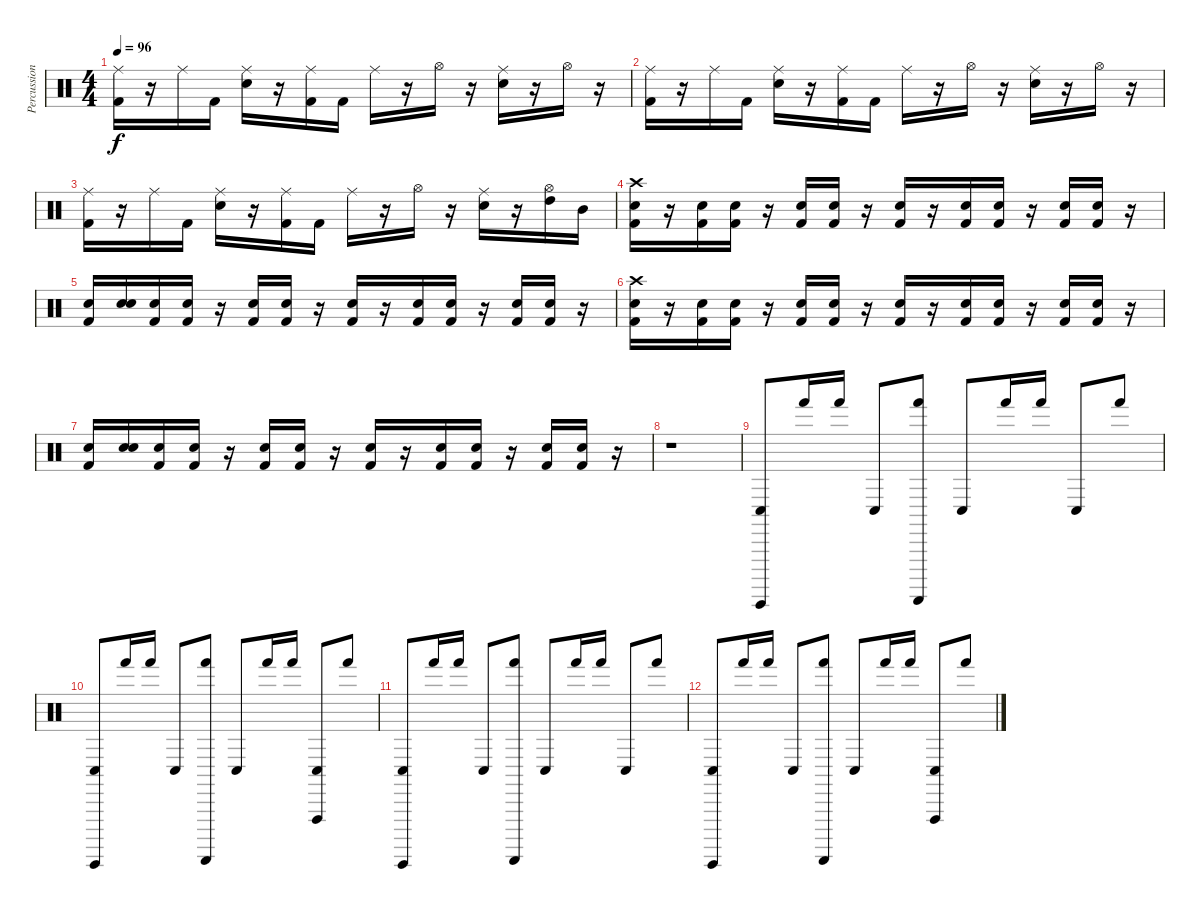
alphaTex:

\track ("Percussion" "Percussion") {instrument percussion}
\staff {score}
\articulation defaults
\ts (4 4)
\tempo 96
\clef neutral
\ks c
("Ride (middle)" "Kick (hit) 2").16{dy f} r.16 "Ride (middle)".16 "Kick (hit) 2".16 ("Ride (middle)" "Snare (hit) 2").16 r.16 ("Ride (middle)" "Kick (hit) 2").16 "Kick (hit) 2".16 "Ride (middle)".16 r.16 "Hi-Hat (open)".16 r.16 ("Ride (middle)" "Snare (hit) 2").16 r.16 "Hi-Hat (open)".16 r.16 |
("Ride (middle)" "Kick (hit) 2").16 r.16 "Ride (middle)".16 "Kick (hit) 2".16 ("Ride (middle)" "Snare (hit) 2").16 r.16 ("Ride (middle)" "Kick (hit) 2").16 "Kick (hit) 2".16 "Ride (middle)".16 r.16 "Hi-Hat (open)".16 r.16 ("Ride (middle)" "Snare (hit) 2").16 r.16 "Hi-Hat (open)".16 r.16 |
("Ride (middle)" "Kick (hit) 2").16 r.16 "Ride (middle)".16 "Kick (hit) 2".16 ("Ride (middle)" "Snare (hit) 2").16 r.16 ("Ride (middle)" "Kick (hit) 2").16 "Kick (hit) 2".16 "Ride (middle)".16 r.16 "Hi-Hat (open)".16 r.16 ("Ride (middle)" "Snare (hit) 2").16 r.16 ("Hi-Hat (open)" "High Tom (hit)").16 "Mid Tom (hit)".16 |
("Crash high (hit)" "Snare (hit) 2" "Kick (hit) 2").16 r.16 ("Snare (hit) 2" "Kick (hit) 2").16 ("Snare (hit) 2" "Kick (hit) 2").16 r.16 ("Snare (hit) 2" "Kick (hit) 2").16 ("Snare (hit) 2" "Kick (hit) 2").16 r.16 ("Snare (hit) 2" "Kick (hit) 2").16 r.16 ("Snare (hit) 2" "Kick (hit) 2").16 ("Snare (hit) 2" "Kick (hit) 2").16 r.16 ("Snare (hit) 2" "Kick (hit) 2").16 ("Snare (hit) 2" "Kick (hit) 2").16 r.16 |
("Snare (hit) 2" "Kick (hit) 2").16 ("Snare (hit) 2" "Snare (hit) 2").16 ("Snare (hit) 2" "Kick (hit) 2").16 ("Snare (hit) 2" "Kick (hit) 2").16 r.16 ("Snare (hit) 2" "Kick (hit) 2").16 ("Snare (hit) 2" "Kick (hit) 2").16 r.16 ("Snare (hit) 2" "Kick (hit) 2").16 r.16 ("Snare (hit) 2" "Kick (hit) 2").16 ("Snare (hit) 2" "Kick (hit) 2").16 r.16 ("Snare (hit) 2" "Kick (hit) 2").16 ("Snare (hit) 2" "Kick (hit) 2").16 r.16 |
("Crash high (hit)" "Snare (hit) 2" "Kick (hit) 2").16 r.16 ("Snare (hit) 2" "Kick (hit) 2").16 ("Snare (hit) 2" "Kick (hit) 2").16 r.16 ("Snare (hit) 2" "Kick (hit) 2").16 ("Snare (hit) 2" "Kick (hit) 2").16 r.16 ("Snare (hit) 2" "Kick (hit) 2").16 r.16 ("Snare (hit) 2" "Kick (hit) 2").16 ("Snare (hit) 2" "Kick (hit) 2").16 r.16 ("Snare (hit) 2" "Kick (hit) 2").16 ("Snare (hit) 2" "Kick (hit) 2").16 r.16 |
("Snare (hit) 2" "Kick (hit) 2").16 ("Snare (hit) 2" "Snare (hit) 2").16 ("Snare (hit) 2" "Kick (hit) 2").16 ("Snare (hit) 2" "Kick (hit) 2").16 r.16 ("Snare (hit) 2" "Kick (hit) 2").16 ("Snare (hit) 2" "Kick (hit) 2").16 r.16 ("Snare (hit) 2" "Kick (hit) 2").16 r.16 ("Snare (hit) 2" "Kick (hit) 2").16 ("Snare (hit) 2" "Kick (hit) 2").16 r.16 ("Snare (hit) 2" "Kick (hit) 2").16 ("Snare (hit) 2" "Kick (hit) 2").16 r.16 |
r.1{volume 0} |
("Conga low (hit)" "Guiro (hit)").8{volume 16} "Hand (hit)".16 "Hand (hit)".16 "Conga low (hit)".8 ("Hand (hit)" "Guiro (scrap-return)").8 "Conga low (hit)".8 "Hand (hit)".16 "Hand (hit)".16 "Conga low (hit)".8 "Hand (hit)".8 |
("Conga low (hit)" "Guiro (hit)").8 "Hand (hit)".16 "Hand (hit)".16 "Conga low (hit)".8 ("Hand (hit)" "Guiro (scrap-return)").8 "Conga low (hit)".8 "Hand (hit)".16 "Hand (hit)".16 ("Conga low (hit)" "Vibraslap (hit)").8 "Hand (hit)".8 |
("Conga low (hit)" "Guiro (hit)").8{volume 0} "Hand (hit)".16 "Hand (hit)".16 "Conga low (hit)".8 ("Hand (hit)" "Guiro (scrap-return)").8 "Conga low (hit)".8 "Hand (hit)".16 "Hand (hit)".16 "Conga low (hit)".8 "Hand (hit)".8 |
("Conga low (hit)" "Guiro (hit)").8 "Hand (hit)".16 "Hand (hit)".16 "Conga low (hit)".8 ("Hand (hit)" "Guiro (scrap-return)").8 "Conga low (hit)".8 "Hand (hit)".16 "Hand (hit)".16 ("Conga low (hit)" "Vibraslap (hit)").8 "Hand (hit)".8
